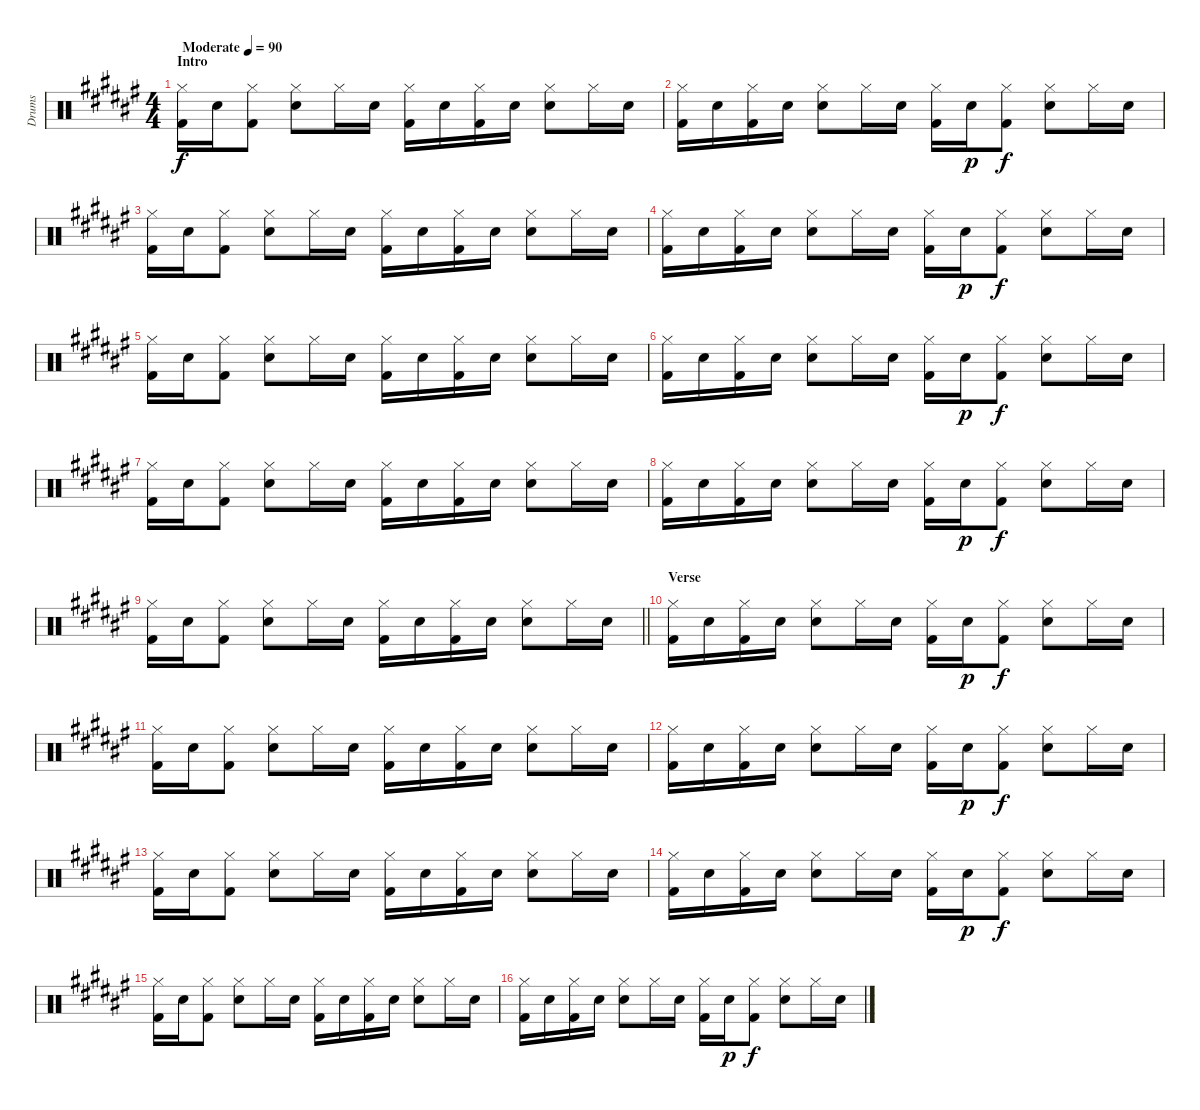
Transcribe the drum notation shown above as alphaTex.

\track ("Drums" "Drums") {instrument percussion}
\staff {score}
\articulation defaults
\ts (4 4)
\section ("" "Intro")
\tempo (90 "Moderate")
\clef neutral
\ks f#
("Hi-Hat (closed)" "Kick (hit) 2").16{dy f} "Snare (hit) 2".16 ("Hi-Hat (closed)" "Kick (hit) 2").8 ("Hi-Hat (closed)" "Snare (hit) 2").8 "Hi-Hat (closed)".16 "Snare (hit) 2".16 ("Hi-Hat (closed)" "Kick (hit) 2").16 "Snare (hit) 2".16 ("Hi-Hat (closed)" "Kick (hit) 2").16 "Snare (hit) 2".16 ("Hi-Hat (closed)" "Snare (hit) 2").8 "Hi-Hat (closed)".16 "Snare (hit) 2".16 |
("Hi-Hat (closed)" "Kick (hit) 2").16 "Snare (hit) 2".16 ("Hi-Hat (closed)" "Kick (hit) 2").16 "Snare (hit) 2".16 ("Hi-Hat (closed)" "Snare (hit) 2").8 "Hi-Hat (closed)".16 "Snare (hit) 2".16 ("Hi-Hat (closed)" "Kick (hit) 2").16 "Snare (hit) 2".16{dy p} ("Hi-Hat (closed)" "Kick (hit) 2").8{dy f} ("Hi-Hat (closed)" "Snare (hit) 2").8 "Hi-Hat (closed)".16 "Snare (hit) 2".16 |
("Hi-Hat (closed)" "Kick (hit) 2").16 "Snare (hit) 2".16 ("Hi-Hat (closed)" "Kick (hit) 2").8 ("Hi-Hat (closed)" "Snare (hit) 2").8 "Hi-Hat (closed)".16 "Snare (hit) 2".16 ("Hi-Hat (closed)" "Kick (hit) 2").16 "Snare (hit) 2".16 ("Hi-Hat (closed)" "Kick (hit) 2").16 "Snare (hit) 2".16 ("Hi-Hat (closed)" "Snare (hit) 2").8 "Hi-Hat (closed)".16 "Snare (hit) 2".16 |
("Hi-Hat (closed)" "Kick (hit) 2").16 "Snare (hit) 2".16 ("Hi-Hat (closed)" "Kick (hit) 2").16 "Snare (hit) 2".16 ("Hi-Hat (closed)" "Snare (hit) 2").8 "Hi-Hat (closed)".16 "Snare (hit) 2".16 ("Hi-Hat (closed)" "Kick (hit) 2").16 "Snare (hit) 2".16{dy p} ("Hi-Hat (closed)" "Kick (hit) 2").8{dy f} ("Hi-Hat (closed)" "Snare (hit) 2").8 "Hi-Hat (closed)".16 "Snare (hit) 2".16 |
("Hi-Hat (closed)" "Kick (hit) 2").16 "Snare (hit) 2".16 ("Hi-Hat (closed)" "Kick (hit) 2").8 ("Hi-Hat (closed)" "Snare (hit) 2").8 "Hi-Hat (closed)".16 "Snare (hit) 2".16 ("Hi-Hat (closed)" "Kick (hit) 2").16 "Snare (hit) 2".16 ("Hi-Hat (closed)" "Kick (hit) 2").16 "Snare (hit) 2".16 ("Hi-Hat (closed)" "Snare (hit) 2").8 "Hi-Hat (closed)".16 "Snare (hit) 2".16 |
("Hi-Hat (closed)" "Kick (hit) 2").16 "Snare (hit) 2".16 ("Hi-Hat (closed)" "Kick (hit) 2").16 "Snare (hit) 2".16 ("Hi-Hat (closed)" "Snare (hit) 2").8 "Hi-Hat (closed)".16 "Snare (hit) 2".16 ("Hi-Hat (closed)" "Kick (hit) 2").16 "Snare (hit) 2".16{dy p} ("Hi-Hat (closed)" "Kick (hit) 2").8{dy f} ("Hi-Hat (closed)" "Snare (hit) 2").8 "Hi-Hat (closed)".16 "Snare (hit) 2".16 |
("Hi-Hat (closed)" "Kick (hit) 2").16 "Snare (hit) 2".16 ("Hi-Hat (closed)" "Kick (hit) 2").8 ("Hi-Hat (closed)" "Snare (hit) 2").8 "Hi-Hat (closed)".16 "Snare (hit) 2".16 ("Hi-Hat (closed)" "Kick (hit) 2").16 "Snare (hit) 2".16 ("Hi-Hat (closed)" "Kick (hit) 2").16 "Snare (hit) 2".16 ("Hi-Hat (closed)" "Snare (hit) 2").8 "Hi-Hat (closed)".16 "Snare (hit) 2".16 |
("Hi-Hat (closed)" "Kick (hit) 2").16 "Snare (hit) 2".16 ("Hi-Hat (closed)" "Kick (hit) 2").16 "Snare (hit) 2".16 ("Hi-Hat (closed)" "Snare (hit) 2").8 "Hi-Hat (closed)".16 "Snare (hit) 2".16 ("Hi-Hat (closed)" "Kick (hit) 2").16 "Snare (hit) 2".16{dy p} ("Hi-Hat (closed)" "Kick (hit) 2").8{dy f} ("Hi-Hat (closed)" "Snare (hit) 2").8 "Hi-Hat (closed)".16 "Snare (hit) 2".16 |
\barLineRight lightlight
("Hi-Hat (closed)" "Kick (hit) 2").16 "Snare (hit) 2".16 ("Hi-Hat (closed)" "Kick (hit) 2").8 ("Hi-Hat (closed)" "Snare (hit) 2").8 "Hi-Hat (closed)".16 "Snare (hit) 2".16 ("Hi-Hat (closed)" "Kick (hit) 2").16 "Snare (hit) 2".16 ("Hi-Hat (closed)" "Kick (hit) 2").16 "Snare (hit) 2".16 ("Hi-Hat (closed)" "Snare (hit) 2").8 "Hi-Hat (closed)".16 "Snare (hit) 2".16 |
\section ("" "Verse")
("Hi-Hat (closed)" "Kick (hit) 2").16 "Snare (hit) 2".16 ("Hi-Hat (closed)" "Kick (hit) 2").16 "Snare (hit) 2".16 ("Hi-Hat (closed)" "Snare (hit) 2").8 "Hi-Hat (closed)".16 "Snare (hit) 2".16 ("Hi-Hat (closed)" "Kick (hit) 2").16 "Snare (hit) 2".16{dy p} ("Hi-Hat (closed)" "Kick (hit) 2").8{dy f} ("Hi-Hat (closed)" "Snare (hit) 2").8 "Hi-Hat (closed)".16 "Snare (hit) 2".16 |
("Hi-Hat (closed)" "Kick (hit) 2").16 "Snare (hit) 2".16 ("Hi-Hat (closed)" "Kick (hit) 2").8 ("Hi-Hat (closed)" "Snare (hit) 2").8 "Hi-Hat (closed)".16 "Snare (hit) 2".16 ("Hi-Hat (closed)" "Kick (hit) 2").16 "Snare (hit) 2".16 ("Hi-Hat (closed)" "Kick (hit) 2").16 "Snare (hit) 2".16 ("Hi-Hat (closed)" "Snare (hit) 2").8 "Hi-Hat (closed)".16 "Snare (hit) 2".16 |
("Hi-Hat (closed)" "Kick (hit) 2").16 "Snare (hit) 2".16 ("Hi-Hat (closed)" "Kick (hit) 2").16 "Snare (hit) 2".16 ("Hi-Hat (closed)" "Snare (hit) 2").8 "Hi-Hat (closed)".16 "Snare (hit) 2".16 ("Hi-Hat (closed)" "Kick (hit) 2").16 "Snare (hit) 2".16{dy p} ("Hi-Hat (closed)" "Kick (hit) 2").8{dy f} ("Hi-Hat (closed)" "Snare (hit) 2").8 "Hi-Hat (closed)".16 "Snare (hit) 2".16 |
("Hi-Hat (closed)" "Kick (hit) 2").16 "Snare (hit) 2".16 ("Hi-Hat (closed)" "Kick (hit) 2").8 ("Hi-Hat (closed)" "Snare (hit) 2").8 "Hi-Hat (closed)".16 "Snare (hit) 2".16 ("Hi-Hat (closed)" "Kick (hit) 2").16 "Snare (hit) 2".16 ("Hi-Hat (closed)" "Kick (hit) 2").16 "Snare (hit) 2".16 ("Hi-Hat (closed)" "Snare (hit) 2").8 "Hi-Hat (closed)".16 "Snare (hit) 2".16 |
("Hi-Hat (closed)" "Kick (hit) 2").16 "Snare (hit) 2".16 ("Hi-Hat (closed)" "Kick (hit) 2").16 "Snare (hit) 2".16 ("Hi-Hat (closed)" "Snare (hit) 2").8 "Hi-Hat (closed)".16 "Snare (hit) 2".16 ("Hi-Hat (closed)" "Kick (hit) 2").16 "Snare (hit) 2".16{dy p} ("Hi-Hat (closed)" "Kick (hit) 2").8{dy f} ("Hi-Hat (closed)" "Snare (hit) 2").8 "Hi-Hat (closed)".16 "Snare (hit) 2".16 |
("Hi-Hat (closed)" "Kick (hit) 2").16 "Snare (hit) 2".16 ("Hi-Hat (closed)" "Kick (hit) 2").8 ("Hi-Hat (closed)" "Snare (hit) 2").8 "Hi-Hat (closed)".16 "Snare (hit) 2".16 ("Hi-Hat (closed)" "Kick (hit) 2").16 "Snare (hit) 2".16 ("Hi-Hat (closed)" "Kick (hit) 2").16 "Snare (hit) 2".16 ("Hi-Hat (closed)" "Snare (hit) 2").8 "Hi-Hat (closed)".16 "Snare (hit) 2".16 |
("Hi-Hat (closed)" "Kick (hit) 2").16 "Snare (hit) 2".16 ("Hi-Hat (closed)" "Kick (hit) 2").16 "Snare (hit) 2".16 ("Hi-Hat (closed)" "Snare (hit) 2").8 "Hi-Hat (closed)".16 "Snare (hit) 2".16 ("Hi-Hat (closed)" "Kick (hit) 2").16 "Snare (hit) 2".16{dy p} ("Hi-Hat (closed)" "Kick (hit) 2").8{dy f} ("Hi-Hat (closed)" "Snare (hit) 2").8 "Hi-Hat (closed)".16 "Snare (hit) 2".16
